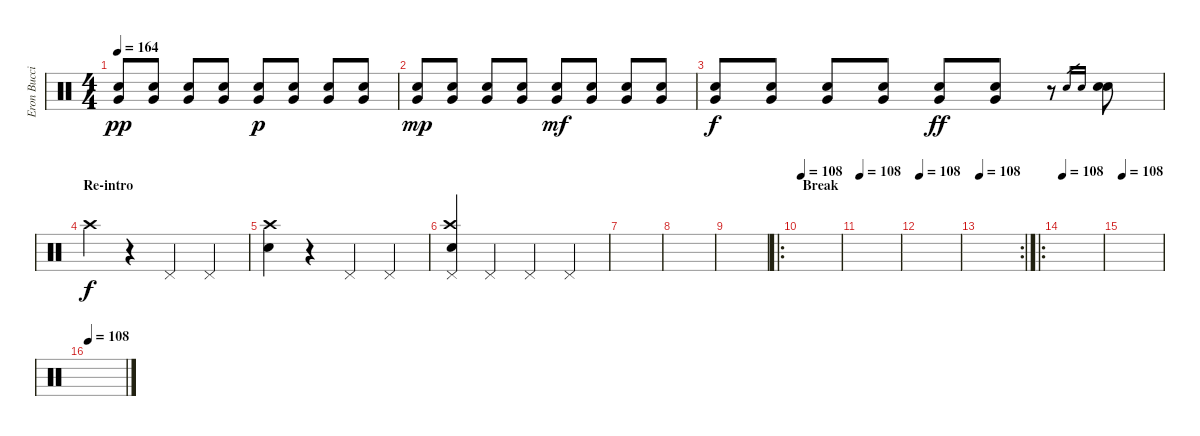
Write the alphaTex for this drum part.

\track ("Eron Bucciarelli (Drums)" "Eron Bucci") {instrument percussion}
\staff {score}
\articulation defaults
\ts (4 4)
\tempo 164
\clef neutral
\ks c
("Electric Snare (hit)" "Very Low Tom (hit)").8{dy pp} ("Electric Snare (hit)" "Very Low Tom (hit)").8 ("Electric Snare (hit)" "Very Low Tom (hit)").8 ("Electric Snare (hit)" "Very Low Tom (hit)").8 ("Electric Snare (hit)" "Very Low Tom (hit)").8{dy p} ("Electric Snare (hit)" "Very Low Tom (hit)").8 ("Electric Snare (hit)" "Very Low Tom (hit)").8 ("Electric Snare (hit)" "Very Low Tom (hit)").8 |
("Electric Snare (hit)" "Very Low Tom (hit)").8{dy mp} ("Electric Snare (hit)" "Very Low Tom (hit)").8 ("Electric Snare (hit)" "Very Low Tom (hit)").8 ("Electric Snare (hit)" "Very Low Tom (hit)").8 ("Electric Snare (hit)" "Very Low Tom (hit)").8{dy mf} ("Electric Snare (hit)" "Very Low Tom (hit)").8 ("Electric Snare (hit)" "Very Low Tom (hit)").8 ("Electric Snare (hit)" "Very Low Tom (hit)").8 |
("Electric Snare (hit)" "Very Low Tom (hit)").8{dy f} ("Electric Snare (hit)" "Very Low Tom (hit)").8 ("Electric Snare (hit)" "Very Low Tom (hit)").8 ("Electric Snare (hit)" "Very Low Tom (hit)").8 ("Electric Snare (hit)" "Very Low Tom (hit)").8{dy ff} ("Electric Snare (hit)" "Very Low Tom (hit)").8 r.8 "Electric Snare (hit)".16{gr} "Electric Snare (hit)".16{gr} ("Electric Snare (hit)" "Electric Snare (hit)").8 |
\section ("" "Re-intro")
"Crash high (hit)".4{dy f} r.4 "Pedal Hi-Hat (hit)".4 "Pedal Hi-Hat (hit)".4 |
("Crash high (hit)" "Electric Snare (hit)").4 r.4 "Pedal Hi-Hat (hit)".4 "Pedal Hi-Hat (hit)".4 |
("Crash high (hit)" "Pedal Hi-Hat (hit)" "Electric Snare (hit)").4 "Pedal Hi-Hat (hit)".4 "Pedal Hi-Hat (hit)".4 "Pedal Hi-Hat (hit)".4 |
|
|
|
\ro
\section ("" "Break")
\tempo 108
|
\tempo 108
|
\tempo 108
|
\rc 2
\tempo 108
|
\ro
\tempo 108
|
\tempo 108
|
\tempo 108
